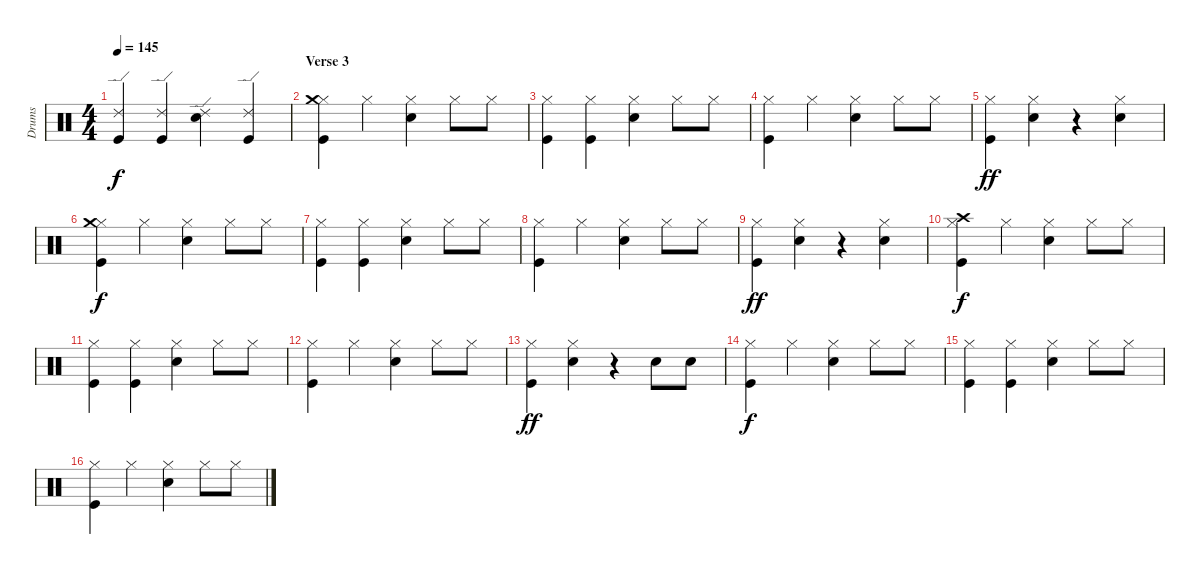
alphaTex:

\track ("Drums" "Drums") {instrument percussion}
\staff {score}
\articulation defaults
\ts (4 4)
\tempo 145
\clef neutral
\ks c
("Ride (edge) 2" "Kick (hit)").4{dy f} ("Ride (edge) 2" "Kick (hit)").4 ("Ride (edge) 2" "Electric Snare (hit)").4 ("Ride (edge) 2" "Kick (hit)").4 |
\section ("" "Verse 3")
("Hi-Hat (closed)" "Crash medium (hit)" "Kick (hit)").4 "Hi-Hat (closed)".4 ("Hi-Hat (closed)" "Electric Snare (hit)").4 "Hi-Hat (closed)".8 "Hi-Hat (closed)".8 |
("Hi-Hat (closed)" "Kick (hit)").4 ("Hi-Hat (closed)" "Kick (hit)").4 ("Hi-Hat (closed)" "Electric Snare (hit)").4 "Hi-Hat (closed)".8 "Hi-Hat (closed)".8 |
("Hi-Hat (closed)" "Kick (hit)").4 "Hi-Hat (closed)".4 ("Hi-Hat (closed)" "Electric Snare (hit)").4 "Hi-Hat (closed)".8 "Hi-Hat (closed)".8 |
("Hi-Hat (closed)" "Kick (hit)").4{dy ff} ("Hi-Hat (closed)" "Electric Snare (hit)").4 r.4 ("Hi-Hat (closed)" "Electric Snare (hit)").4 |
("Hi-Hat (closed)" "Crash medium (hit)" "Kick (hit)").4{dy f} "Hi-Hat (closed)".4 ("Hi-Hat (closed)" "Electric Snare (hit)").4 "Hi-Hat (closed)".8 "Hi-Hat (closed)".8 |
("Hi-Hat (closed)" "Kick (hit)").4 ("Hi-Hat (closed)" "Kick (hit)").4 ("Hi-Hat (closed)" "Electric Snare (hit)").4 "Hi-Hat (closed)".8 "Hi-Hat (closed)".8 |
("Hi-Hat (closed)" "Kick (hit)").4 "Hi-Hat (closed)".4 ("Hi-Hat (closed)" "Electric Snare (hit)").4 "Hi-Hat (closed)".8 "Hi-Hat (closed)".8 |
("Hi-Hat (closed)" "Kick (hit)").4{dy ff} ("Hi-Hat (closed)" "Electric Snare (hit)").4 r.4 ("Hi-Hat (closed)" "Electric Snare (hit)").4 |
("Hi-Hat (closed)" "Crash high (hit)" "Kick (hit)").4{dy f} "Hi-Hat (closed)".4 ("Hi-Hat (closed)" "Electric Snare (hit)").4 "Hi-Hat (closed)".8 "Hi-Hat (closed)".8 |
("Hi-Hat (closed)" "Kick (hit)").4 ("Hi-Hat (closed)" "Kick (hit)").4 ("Hi-Hat (closed)" "Electric Snare (hit)").4 "Hi-Hat (closed)".8 "Hi-Hat (closed)".8 |
("Hi-Hat (closed)" "Kick (hit)").4 "Hi-Hat (closed)".4 ("Hi-Hat (closed)" "Electric Snare (hit)").4 "Hi-Hat (closed)".8 "Hi-Hat (closed)".8 |
("Hi-Hat (closed)" "Kick (hit)").4{dy ff} ("Hi-Hat (closed)" "Electric Snare (hit)").4 r.4 "Electric Snare (hit)".8 "Electric Snare (hit)".8 |
("Hi-Hat (closed)" "Kick (hit)").4{dy f} "Hi-Hat (closed)".4 ("Hi-Hat (closed)" "Electric Snare (hit)").4 "Hi-Hat (closed)".8 "Hi-Hat (closed)".8 |
("Hi-Hat (closed)" "Kick (hit)").4 ("Hi-Hat (closed)" "Kick (hit)").4 ("Hi-Hat (closed)" "Electric Snare (hit)").4 "Hi-Hat (closed)".8 "Hi-Hat (closed)".8 |
("Hi-Hat (closed)" "Kick (hit)").4 "Hi-Hat (closed)".4 ("Hi-Hat (closed)" "Electric Snare (hit)").4 "Hi-Hat (closed)".8 "Hi-Hat (closed)".8
